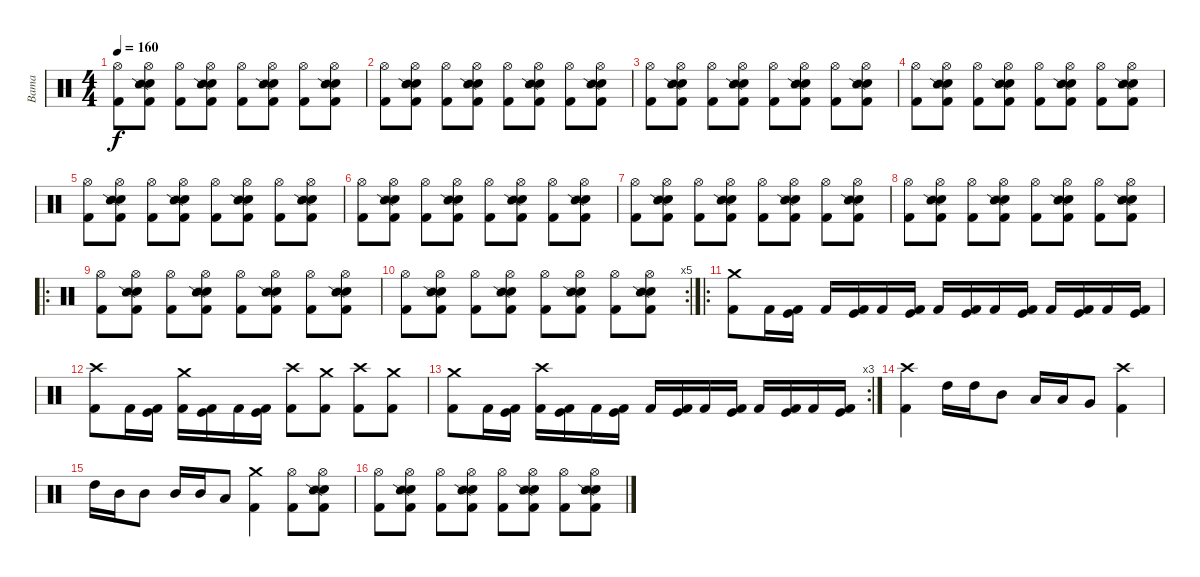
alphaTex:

\track ("Bama" "Bama") {instrument percussion}
\staff {score}
\articulation defaults
\ts (4 4)
\tempo 160
\clef neutral
\ks c
("Hi-Hat (open)" "Kick (hit) 2").8{dy f} ("Hi-Hat (open)" "Electric Snare (hit)" "Snare (side stick) 2" "Kick (hit) 2").8 ("Hi-Hat (open)" "Kick (hit) 2").8 ("Hi-Hat (open)" "Electric Snare (hit)" "Snare (side stick) 2" "Kick (hit) 2").8 ("Hi-Hat (open)" "Kick (hit) 2").8 ("Hi-Hat (open)" "Electric Snare (hit)" "Snare (side stick) 2" "Kick (hit) 2").8 ("Hi-Hat (open)" "Kick (hit) 2").8 ("Hi-Hat (open)" "Electric Snare (hit)" "Snare (side stick) 2" "Kick (hit) 2").8 |
("Hi-Hat (open)" "Kick (hit) 2").8 ("Hi-Hat (open)" "Electric Snare (hit)" "Snare (side stick) 2" "Kick (hit) 2").8 ("Hi-Hat (open)" "Kick (hit) 2").8 ("Hi-Hat (open)" "Electric Snare (hit)" "Snare (side stick) 2" "Kick (hit) 2").8 ("Hi-Hat (open)" "Kick (hit) 2").8 ("Hi-Hat (open)" "Electric Snare (hit)" "Snare (side stick) 2" "Kick (hit) 2").8 ("Hi-Hat (open)" "Kick (hit) 2").8 ("Hi-Hat (open)" "Electric Snare (hit)" "Snare (side stick) 2" "Kick (hit) 2").8 |
("Hi-Hat (open)" "Kick (hit) 2").8 ("Hi-Hat (open)" "Electric Snare (hit)" "Snare (side stick) 2" "Kick (hit) 2").8 ("Hi-Hat (open)" "Kick (hit) 2").8 ("Hi-Hat (open)" "Electric Snare (hit)" "Snare (side stick) 2" "Kick (hit) 2").8 ("Hi-Hat (open)" "Kick (hit) 2").8 ("Hi-Hat (open)" "Electric Snare (hit)" "Snare (side stick) 2" "Kick (hit) 2").8 ("Hi-Hat (open)" "Kick (hit) 2").8 ("Hi-Hat (open)" "Electric Snare (hit)" "Snare (side stick) 2" "Kick (hit) 2").8 |
("Hi-Hat (open)" "Kick (hit) 2").8 ("Hi-Hat (open)" "Electric Snare (hit)" "Snare (side stick) 2" "Kick (hit) 2").8 ("Hi-Hat (open)" "Kick (hit) 2").8 ("Hi-Hat (open)" "Electric Snare (hit)" "Snare (side stick) 2" "Kick (hit) 2").8 ("Hi-Hat (open)" "Kick (hit) 2").8 ("Hi-Hat (open)" "Electric Snare (hit)" "Snare (side stick) 2" "Kick (hit) 2").8 ("Hi-Hat (open)" "Kick (hit) 2").8 ("Hi-Hat (open)" "Electric Snare (hit)" "Snare (side stick) 2" "Kick (hit) 2").8 |
("Hi-Hat (open)" "Kick (hit) 2").8 ("Hi-Hat (open)" "Electric Snare (hit)" "Snare (side stick) 2" "Kick (hit) 2").8 ("Hi-Hat (open)" "Kick (hit) 2").8 ("Hi-Hat (open)" "Electric Snare (hit)" "Snare (side stick) 2" "Kick (hit) 2").8 ("Hi-Hat (open)" "Kick (hit) 2").8 ("Hi-Hat (open)" "Electric Snare (hit)" "Snare (side stick) 2" "Kick (hit) 2").8 ("Hi-Hat (open)" "Kick (hit) 2").8 ("Hi-Hat (open)" "Electric Snare (hit)" "Snare (side stick) 2" "Kick (hit) 2").8 |
("Hi-Hat (open)" "Kick (hit) 2").8 ("Hi-Hat (open)" "Electric Snare (hit)" "Snare (side stick) 2" "Kick (hit) 2").8 ("Hi-Hat (open)" "Kick (hit) 2").8 ("Hi-Hat (open)" "Electric Snare (hit)" "Snare (side stick) 2" "Kick (hit) 2").8 ("Hi-Hat (open)" "Kick (hit) 2").8 ("Hi-Hat (open)" "Electric Snare (hit)" "Snare (side stick) 2" "Kick (hit) 2").8 ("Hi-Hat (open)" "Kick (hit) 2").8 ("Hi-Hat (open)" "Electric Snare (hit)" "Snare (side stick) 2" "Kick (hit) 2").8 |
("Hi-Hat (open)" "Kick (hit) 2").8 ("Hi-Hat (open)" "Electric Snare (hit)" "Snare (side stick) 2" "Kick (hit) 2").8 ("Hi-Hat (open)" "Kick (hit) 2").8 ("Hi-Hat (open)" "Electric Snare (hit)" "Snare (side stick) 2" "Kick (hit) 2").8 ("Hi-Hat (open)" "Kick (hit) 2").8 ("Hi-Hat (open)" "Electric Snare (hit)" "Snare (side stick) 2" "Kick (hit) 2").8 ("Hi-Hat (open)" "Kick (hit) 2").8 ("Hi-Hat (open)" "Electric Snare (hit)" "Snare (side stick) 2" "Kick (hit) 2").8 |
("Hi-Hat (open)" "Kick (hit) 2").8 ("Hi-Hat (open)" "Electric Snare (hit)" "Snare (side stick) 2" "Kick (hit) 2").8 ("Hi-Hat (open)" "Kick (hit) 2").8 ("Hi-Hat (open)" "Electric Snare (hit)" "Snare (side stick) 2" "Kick (hit) 2").8 ("Hi-Hat (open)" "Kick (hit) 2").8 ("Hi-Hat (open)" "Electric Snare (hit)" "Snare (side stick) 2" "Kick (hit) 2").8 ("Hi-Hat (open)" "Kick (hit) 2").8 ("Hi-Hat (open)" "Electric Snare (hit)" "Snare (side stick) 2" "Kick (hit) 2").8 |
\ro
("Hi-Hat (open)" "Kick (hit) 2").8 ("Hi-Hat (open)" "Electric Snare (hit)" "Snare (side stick) 2" "Kick (hit) 2").8 ("Hi-Hat (open)" "Kick (hit) 2").8 ("Hi-Hat (open)" "Electric Snare (hit)" "Snare (side stick) 2" "Kick (hit) 2").8 ("Hi-Hat (open)" "Kick (hit) 2").8 ("Hi-Hat (open)" "Electric Snare (hit)" "Snare (side stick) 2" "Kick (hit) 2").8 ("Hi-Hat (open)" "Kick (hit) 2").8 ("Hi-Hat (open)" "Electric Snare (hit)" "Snare (side stick) 2" "Kick (hit) 2").8 |
\rc 5
("Hi-Hat (open)" "Kick (hit) 2").8 ("Hi-Hat (open)" "Electric Snare (hit)" "Snare (side stick) 2" "Kick (hit) 2").8 ("Hi-Hat (open)" "Kick (hit) 2").8 ("Hi-Hat (open)" "Electric Snare (hit)" "Snare (side stick) 2" "Kick (hit) 2").8 ("Hi-Hat (open)" "Kick (hit) 2").8 ("Hi-Hat (open)" "Electric Snare (hit)" "Snare (side stick) 2" "Kick (hit) 2").8 ("Hi-Hat (open)" "Kick (hit) 2").8 ("Hi-Hat (open)" "Electric Snare (hit)" "Snare (side stick) 2" "Kick (hit) 2").8 |
\ro
("Crash medium (hit)" "Kick (hit) 2").8 "Kick (hit) 2".16 ("Kick (hit)" "Kick (hit) 2").16 "Kick (hit) 2".16 ("Kick (hit)" "Kick (hit) 2").16 "Kick (hit) 2".16 ("Kick (hit)" "Kick (hit) 2").16 "Kick (hit) 2".16 ("Kick (hit)" "Kick (hit) 2").16 "Kick (hit) 2".16 ("Kick (hit)" "Kick (hit) 2").16 "Kick (hit) 2".16 ("Kick (hit)" "Kick (hit) 2").16 "Kick (hit) 2".16 ("Kick (hit)" "Kick (hit) 2").16 |
("Crash high (hit)" "Kick (hit) 2").8 "Kick (hit) 2".16 ("Kick (hit)" "Kick (hit) 2").16 ("Crash medium (hit)" "Kick (hit) 2").16 ("Kick (hit)" "Kick (hit) 2").16 "Kick (hit) 2".16 ("Kick (hit)" "Kick (hit) 2").16 ("Crash high (hit)" "Kick (hit) 2").8 ("Crash medium (hit)" "Kick (hit) 2").8 ("Crash high (hit)" "Kick (hit) 2").8 ("Crash medium (hit)" "Kick (hit) 2").8 |
\rc 3
("Crash medium (hit)" "Kick (hit) 2").8 "Kick (hit) 2".16 ("Kick (hit)" "Kick (hit) 2").16 ("Crash high (hit)" "Kick (hit) 2").16 ("Kick (hit)" "Kick (hit) 2").16 "Kick (hit) 2".16 ("Kick (hit)" "Kick (hit) 2").16 "Kick (hit) 2".16 ("Kick (hit)" "Kick (hit) 2").16 "Kick (hit) 2".16 ("Kick (hit)" "Kick (hit) 2").16 "Kick (hit) 2".16 ("Kick (hit)" "Kick (hit) 2").16 "Kick (hit) 2".16 ("Kick (hit)" "Kick (hit) 2").16 |
("Crash high (hit)" "Kick (hit) 2").4 "High Tom (hit)".16 "High Tom (hit)".16 "Mid Tom (hit)".8 "Low Tom (hit)".16 "Low Tom (hit)".16 "Very Low Tom (hit)".8 ("Crash high (hit)" "Kick (hit) 2").4 |
"High Tom (hit)".16 "Mid Tom (hit)".16 "Mid Tom (hit)".8 "Mid Tom (hit)".16 "Mid Tom (hit)".16 "Low Tom (hit)".8 ("Crash medium (hit)" "Kick (hit) 2").4 ("Hi-Hat (open)" "Kick (hit) 2").8 ("Hi-Hat (open)" "Electric Snare (hit)" "Snare (side stick) 2" "Kick (hit) 2").8 |
("Hi-Hat (open)" "Kick (hit) 2").8 ("Hi-Hat (open)" "Electric Snare (hit)" "Snare (side stick) 2" "Kick (hit) 2").8 ("Hi-Hat (open)" "Kick (hit) 2").8 ("Hi-Hat (open)" "Electric Snare (hit)" "Snare (side stick) 2" "Kick (hit) 2").8 ("Hi-Hat (open)" "Kick (hit) 2").8 ("Hi-Hat (open)" "Electric Snare (hit)" "Snare (side stick) 2" "Kick (hit) 2").8 ("Hi-Hat (open)" "Kick (hit) 2").8 ("Hi-Hat (open)" "Electric Snare (hit)" "Snare (side stick) 2" "Kick (hit) 2").8
